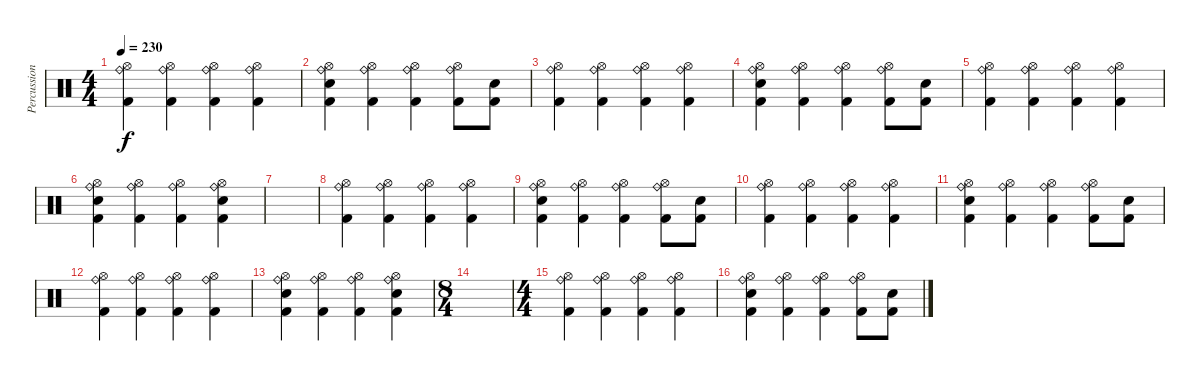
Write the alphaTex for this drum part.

\track ("Percussion" "Percussion") {instrument percussion}
\staff {score}
\articulation defaults
\ts (4 4)
\tempo 230
\clef neutral
\ks c
("Hi-Hat (open)" "Ride (bell)" "Kick (hit) 2").4{dy f} ("Hi-Hat (open)" "Ride (bell)" "Kick (hit) 2").4 ("Hi-Hat (open)" "Ride (bell)" "Kick (hit) 2").4 ("Hi-Hat (open)" "Ride (bell)" "Kick (hit) 2").4 |
("Hi-Hat (open)" "Ride (bell)" "Electric Snare (hit)" "Kick (hit) 2").4 ("Hi-Hat (open)" "Ride (bell)" "Kick (hit) 2").4 ("Hi-Hat (open)" "Ride (bell)" "Kick (hit) 2").4 ("Hi-Hat (open)" "Ride (bell)" "Kick (hit) 2").8 ("Electric Snare (hit)" "Kick (hit) 2").8 |
("Hi-Hat (open)" "Ride (bell)" "Kick (hit) 2").4 ("Hi-Hat (open)" "Ride (bell)" "Kick (hit) 2").4 ("Hi-Hat (open)" "Ride (bell)" "Kick (hit) 2").4 ("Hi-Hat (open)" "Ride (bell)" "Kick (hit) 2").4 |
("Hi-Hat (open)" "Ride (bell)" "Electric Snare (hit)" "Kick (hit) 2").4 ("Hi-Hat (open)" "Ride (bell)" "Kick (hit) 2").4 ("Hi-Hat (open)" "Ride (bell)" "Kick (hit) 2").4 ("Hi-Hat (open)" "Ride (bell)" "Kick (hit) 2").8 ("Electric Snare (hit)" "Kick (hit) 2").8 |
("Hi-Hat (open)" "Ride (bell)" "Kick (hit) 2").4 ("Hi-Hat (open)" "Ride (bell)" "Kick (hit) 2").4 ("Hi-Hat (open)" "Ride (bell)" "Kick (hit) 2").4 ("Hi-Hat (open)" "Ride (bell)" "Kick (hit) 2").4 |
("Hi-Hat (open)" "Ride (bell)" "Electric Snare (hit)" "Kick (hit) 2").4 ("Hi-Hat (open)" "Ride (bell)" "Kick (hit) 2").4 ("Hi-Hat (open)" "Ride (bell)" "Kick (hit) 2").4 ("Hi-Hat (open)" "Ride (bell)" "Electric Snare (hit)" "Kick (hit) 2").4 |
|
("Hi-Hat (open)" "Ride (bell)" "Kick (hit) 2").4 ("Hi-Hat (open)" "Ride (bell)" "Kick (hit) 2").4 ("Hi-Hat (open)" "Ride (bell)" "Kick (hit) 2").4 ("Hi-Hat (open)" "Ride (bell)" "Kick (hit) 2").4 |
("Hi-Hat (open)" "Ride (bell)" "Electric Snare (hit)" "Kick (hit) 2").4 ("Hi-Hat (open)" "Ride (bell)" "Kick (hit) 2").4 ("Hi-Hat (open)" "Ride (bell)" "Kick (hit) 2").4 ("Hi-Hat (open)" "Ride (bell)" "Kick (hit) 2").8 ("Electric Snare (hit)" "Kick (hit) 2").8 |
("Hi-Hat (open)" "Ride (bell)" "Kick (hit) 2").4 ("Hi-Hat (open)" "Ride (bell)" "Kick (hit) 2").4 ("Hi-Hat (open)" "Ride (bell)" "Kick (hit) 2").4 ("Hi-Hat (open)" "Ride (bell)" "Kick (hit) 2").4 |
("Hi-Hat (open)" "Ride (bell)" "Electric Snare (hit)" "Kick (hit) 2").4 ("Hi-Hat (open)" "Ride (bell)" "Kick (hit) 2").4 ("Hi-Hat (open)" "Ride (bell)" "Kick (hit) 2").4 ("Hi-Hat (open)" "Ride (bell)" "Kick (hit) 2").8 ("Electric Snare (hit)" "Kick (hit) 2").8 |
("Hi-Hat (open)" "Ride (bell)" "Kick (hit) 2").4 ("Hi-Hat (open)" "Ride (bell)" "Kick (hit) 2").4 ("Hi-Hat (open)" "Ride (bell)" "Kick (hit) 2").4 ("Hi-Hat (open)" "Ride (bell)" "Kick (hit) 2").4 |
("Hi-Hat (open)" "Ride (bell)" "Electric Snare (hit)" "Kick (hit) 2").4 ("Hi-Hat (open)" "Ride (bell)" "Kick (hit) 2").4 ("Hi-Hat (open)" "Ride (bell)" "Kick (hit) 2").4 ("Hi-Hat (open)" "Ride (bell)" "Electric Snare (hit)" "Kick (hit) 2").4 |
\ts (8 4)
|
\ts (4 4)
("Hi-Hat (open)" "Ride (bell)" "Kick (hit) 2").4 ("Hi-Hat (open)" "Ride (bell)" "Kick (hit) 2").4 ("Hi-Hat (open)" "Ride (bell)" "Kick (hit) 2").4 ("Hi-Hat (open)" "Ride (bell)" "Kick (hit) 2").4 |
("Hi-Hat (open)" "Ride (bell)" "Electric Snare (hit)" "Kick (hit) 2").4 ("Hi-Hat (open)" "Ride (bell)" "Kick (hit) 2").4 ("Hi-Hat (open)" "Ride (bell)" "Kick (hit) 2").4 ("Hi-Hat (open)" "Ride (bell)" "Kick (hit) 2").8 ("Electric Snare (hit)" "Kick (hit) 2").8
